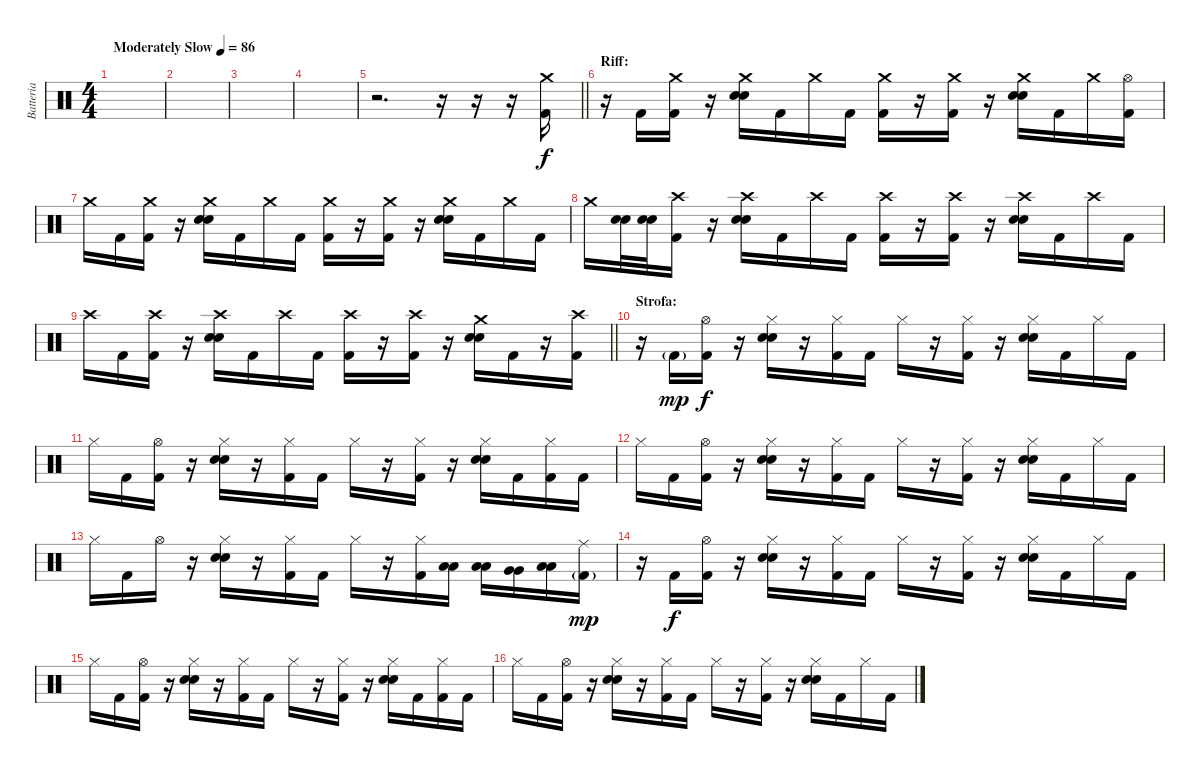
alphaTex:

\track ("Batteria" "Batteria") {instrument percussion}
\staff {score}
\articulation defaults
\ts (4 4)
\tempo (86 "Moderately Slow")
\clef neutral
\ks c
|
|
|
|
\barLineRight lightlight
r.2{d} r.16 r.16 r.16 ("Kick (hit) 2" "Crash medium (hit)").16 |
\section ("" "Riff:")
r.16 "Kick (hit) 2".16 ("Kick (hit) 2" "Crash medium (hit)").16 r.16 ("Snare (hit) 2" "Snare (hit) 2" "Crash medium (hit)").16 "Kick (hit) 2".16 "Crash medium (hit)".16 "Kick (hit) 2".16 ("Kick (hit) 2" "Crash medium (hit)").16 r.16 ("Kick (hit) 2" "Crash medium (hit)").16 r.16 ("Snare (hit) 2" "Snare (hit) 2" "Crash medium (hit)").16 "Kick (hit) 2".16 "Crash medium (hit)".16 ("Kick (hit) 2" "Hi-Hat (open)").16 |
"Crash medium (hit)".16 "Kick (hit) 2".16 ("Kick (hit) 2" "Crash medium (hit)").16 r.16 ("Snare (hit) 2" "Snare (hit) 2" "Crash medium (hit)").16 "Kick (hit) 2".16 "Crash medium (hit)".16 "Kick (hit) 2".16 ("Kick (hit) 2" "Crash medium (hit)").16 r.16 ("Kick (hit) 2" "Crash medium (hit)").16 r.16 ("Snare (hit) 2" "Snare (hit) 2" "Crash medium (hit)").16 "Kick (hit) 2".16 "Crash medium (hit)".16 "Kick (hit) 2".16 |
"Crash medium (hit)".16 ("Snare (hit) 2" "Snare (hit) 2").32 ("Snare (hit) 2" "Snare (hit) 2").32 ("Kick (hit) 2" "Crash high (hit)").16 r.16 ("Snare (hit) 2" "Snare (hit) 2" "Crash high (hit)").16 "Kick (hit) 2".16 "Crash high (hit)".16 "Kick (hit) 2".16 ("Kick (hit) 2" "Crash high (hit)").16 r.16 ("Kick (hit) 2" "Crash high (hit)").16 r.16 ("Snare (hit) 2" "Snare (hit) 2" "Crash high (hit)").16 "Kick (hit) 2".16 "Crash high (hit)".16 "Kick (hit) 2".16 |
\barLineRight lightlight "Crash high (hit)".16 "Kick (hit) 2".16
("Kick (hit) 2" "Crash high (hit)").16 r.16 ("Snare (hit) 2" "Snare (hit) 2" "Crash high (hit)").16 "Kick (hit) 2".16 "Crash high (hit)".16 "Kick (hit) 2".16 ("Kick (hit) 2" "Crash high (hit)").16 r.16 ("Kick (hit) 2" "Crash high (hit)").16 r.16 ("Snare (hit) 2" "Snare (hit) 2" "Crash medium (hit)").16 "Kick (hit) 2".16 r.16 ("Kick (hit) 2" "Crash high (hit)").16 |
\section ("" "Strofa:")
r.16 "Kick (hit) 2"{g}.16{dy mp} ("Kick (hit) 2" "Hi-Hat (open)").16{dy f} r.16 ("Snare (hit) 2" "Snare (hit) 2" "Hi-Hat (closed)").16 r.16 ("Kick (hit) 2" "Hi-Hat (closed)").16 "Kick (hit) 2".16 "Hi-Hat (closed)".16 r.16 ("Kick (hit) 2" "Hi-Hat (closed)").16 r.16 ("Snare (hit) 2" "Snare (hit) 2" "Hi-Hat (closed)").16 "Kick (hit) 2".16 "Hi-Hat (closed)".16 "Kick (hit) 2".16 |
"Hi-Hat (closed)".16 "Kick (hit) 2".16 ("Kick (hit) 2" "Hi-Hat (open)").16 r.16 ("Snare (hit) 2" "Snare (hit) 2" "Hi-Hat (closed)").16 r.16 ("Kick (hit) 2" "Hi-Hat (closed)").16 "Kick (hit) 2".16 "Hi-Hat (closed)".16 r.16 ("Kick (hit) 2" "Hi-Hat (closed)").16 r.16 ("Snare (hit) 2" "Snare (hit) 2" "Hi-Hat (closed)").16 "Kick (hit) 2".16 ("Kick (hit) 2" "Hi-Hat (closed)").16 "Kick (hit) 2".16 |
"Hi-Hat (closed)".16 "Kick (hit) 2".16 ("Kick (hit) 2" "Hi-Hat (open)").16 r.16 ("Snare (hit) 2" "Snare (hit) 2" "Hi-Hat (closed)").16 r.16 ("Kick (hit) 2" "Hi-Hat (closed)").16 "Kick (hit) 2".16 "Hi-Hat (closed)".16 r.16 ("Kick (hit) 2" "Hi-Hat (closed)").16 r.16 ("Snare (hit) 2" "Snare (hit) 2" "Hi-Hat (closed)").16 "Kick (hit) 2".16 "Hi-Hat (closed)".16 "Kick (hit) 2".16 |
"Hi-Hat (closed)".16 "Kick (hit) 2".16 "Hi-Hat (open)".16 r.16 ("Snare (hit) 2" "Snare (hit) 2" "Hi-Hat (closed)").16 r.16 ("Kick (hit) 2" "Hi-Hat (closed)").16 "Kick (hit) 2".16 "Hi-Hat (closed)".16 r.16 ("Kick (hit) 2" "Hi-Hat (closed)").16 ("Low Tom (hit)" "Low Tom (hit)").16 ("Low Tom (hit)" "Low Tom (hit)").16 ("Very Low Tom (hit)" "Very Low Tom (hit)").16 ("Low Floor Tom (hit)" "Low Floor Tom (hit)").16 ("Kick (hit) 2"{g} "Ride (middle)").16{dy mp} |
r.16 "Kick (hit) 2".16{dy f} ("Kick (hit) 2" "Hi-Hat (open)").16 r.16 ("Snare (hit) 2" "Snare (hit) 2" "Hi-Hat (closed)").16 r.16 ("Kick (hit) 2" "Hi-Hat (closed)").16 "Kick (hit) 2".16 "Hi-Hat (closed)".16 r.16 ("Kick (hit) 2" "Hi-Hat (closed)").16 r.16 ("Snare (hit) 2" "Snare (hit) 2" "Hi-Hat (closed)").16 "Kick (hit) 2".16 "Hi-Hat (closed)".16 "Kick (hit) 2".16 |
"Hi-Hat (closed)".16 "Kick (hit) 2".16 ("Kick (hit) 2" "Hi-Hat (open)").16 r.16 ("Snare (hit) 2" "Snare (hit) 2" "Hi-Hat (closed)").16 r.16 ("Kick (hit) 2" "Hi-Hat (closed)").16 "Kick (hit) 2".16 "Hi-Hat (closed)".16 r.16 ("Kick (hit) 2" "Hi-Hat (closed)").16 r.16 ("Snare (hit) 2" "Snare (hit) 2" "Hi-Hat (closed)").16 "Kick (hit) 2".16 ("Kick (hit) 2" "Hi-Hat (closed)").16 "Kick (hit) 2".16 |
"Hi-Hat (closed)".16 "Kick (hit) 2".16 ("Kick (hit) 2" "Hi-Hat (open)").16 r.16 ("Snare (hit) 2" "Snare (hit) 2" "Hi-Hat (closed)").16 r.16 ("Kick (hit) 2" "Hi-Hat (closed)").16 "Kick (hit) 2".16 "Hi-Hat (closed)".16 r.16 ("Kick (hit) 2" "Hi-Hat (closed)").16 r.16 ("Snare (hit) 2" "Snare (hit) 2" "Hi-Hat (closed)").16 "Kick (hit) 2".16 "Hi-Hat (closed)".16 "Kick (hit) 2".16
